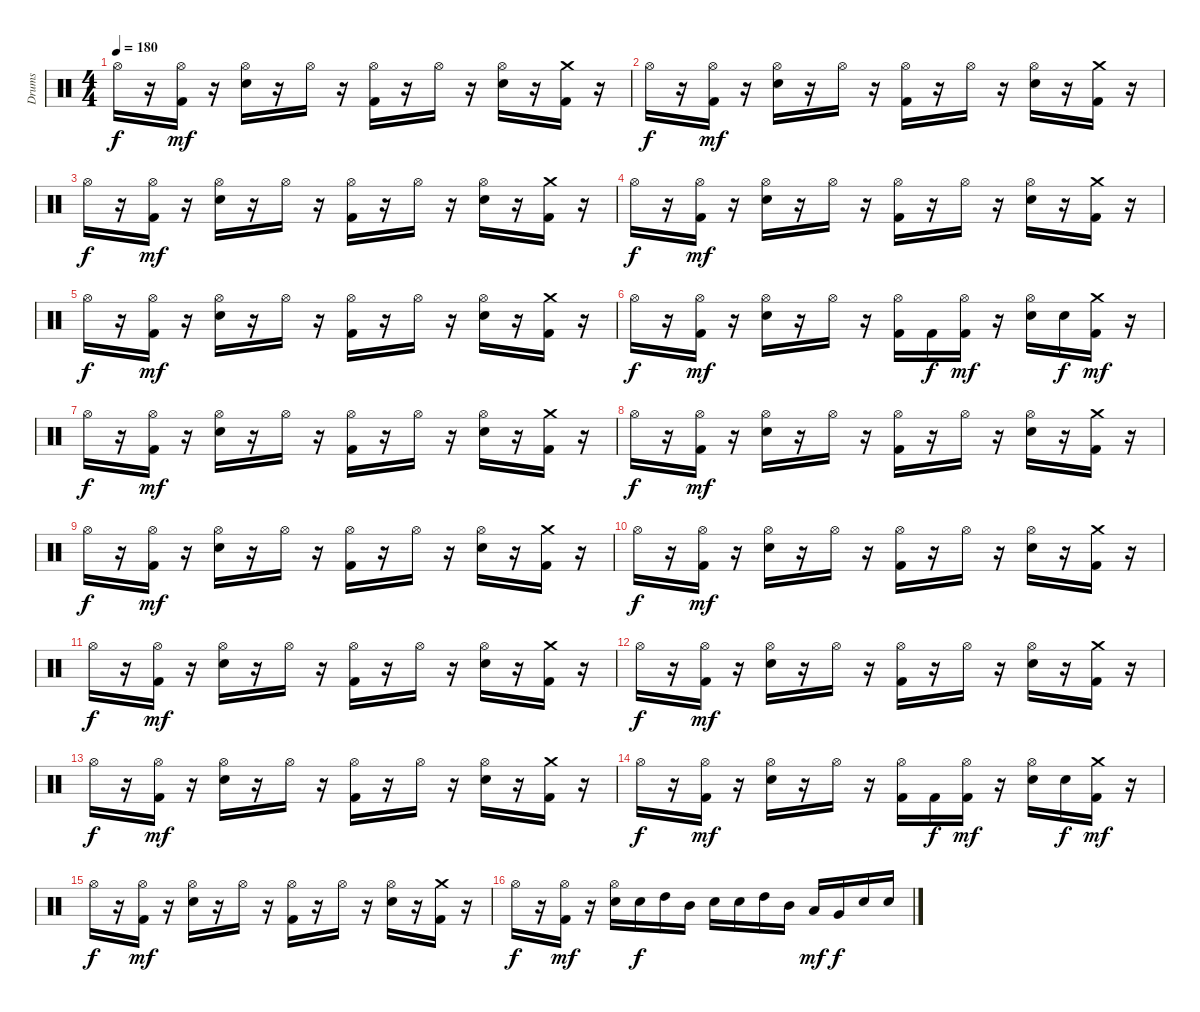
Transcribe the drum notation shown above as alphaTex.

\track ("Drums" "Drums") {instrument percussion}
\staff {score}
\articulation defaults
\ts (4 4)
\tempo 180
\clef neutral
\ks c "Hi-Hat (open)".16{dy f}
r.16 ("Hi-Hat (open)" "Kick (hit) 2").16{dy mf} r.16 ("Hi-Hat (open)" "Electric Snare (hit)").16 r.16 "Hi-Hat (open)".16 r.16 ("Hi-Hat (open)" "Kick (hit) 2").16 r.16 "Hi-Hat (open)".16 r.16 ("Hi-Hat (open)" "Electric Snare (hit)").16 r.16 ("Crash medium (hit)" "Kick (hit) 2").16 r.16 |
"Hi-Hat (open)".16{dy f} r.16 ("Hi-Hat (open)" "Kick (hit) 2").16{dy mf} r.16 ("Hi-Hat (open)" "Electric Snare (hit)").16 r.16 "Hi-Hat (open)".16 r.16 ("Hi-Hat (open)" "Kick (hit) 2").16 r.16 "Hi-Hat (open)".16 r.16 ("Hi-Hat (open)" "Electric Snare (hit)").16 r.16 ("Crash medium (hit)" "Kick (hit) 2").16 r.16 |
"Hi-Hat (open)".16{dy f} r.16 ("Hi-Hat (open)" "Kick (hit) 2").16{dy mf} r.16 ("Hi-Hat (open)" "Electric Snare (hit)").16 r.16 "Hi-Hat (open)".16 r.16 ("Hi-Hat (open)" "Kick (hit) 2").16 r.16 "Hi-Hat (open)".16 r.16 ("Hi-Hat (open)" "Electric Snare (hit)").16 r.16 ("Crash medium (hit)" "Kick (hit) 2").16 r.16 |
"Hi-Hat (open)".16{dy f} r.16 ("Hi-Hat (open)" "Kick (hit) 2").16{dy mf} r.16 ("Hi-Hat (open)" "Electric Snare (hit)").16 r.16 "Hi-Hat (open)".16 r.16 ("Hi-Hat (open)" "Kick (hit) 2").16 r.16 "Hi-Hat (open)".16 r.16 ("Hi-Hat (open)" "Electric Snare (hit)").16 r.16 ("Crash medium (hit)" "Kick (hit) 2").16 r.16 |
"Hi-Hat (open)".16{dy f} r.16 ("Hi-Hat (open)" "Kick (hit) 2").16{dy mf} r.16 ("Hi-Hat (open)" "Electric Snare (hit)").16 r.16 "Hi-Hat (open)".16 r.16 ("Hi-Hat (open)" "Kick (hit) 2").16 r.16 "Hi-Hat (open)".16 r.16 ("Hi-Hat (open)" "Electric Snare (hit)").16 r.16 ("Crash medium (hit)" "Kick (hit) 2").16 r.16 |
"Hi-Hat (open)".16{dy f} r.16 ("Hi-Hat (open)" "Kick (hit) 2").16{dy mf} r.16 ("Hi-Hat (open)" "Electric Snare (hit)").16 r.16 "Hi-Hat (open)".16 r.16 ("Hi-Hat (open)" "Kick (hit) 2").16 "Kick (hit) 2".16{dy f} ("Hi-Hat (open)" "Kick (hit) 2").16{dy mf} r.16 ("Hi-Hat (open)" "Electric Snare (hit)").16 "Electric Snare (hit)".16{dy f} ("Crash medium (hit)" "Kick (hit) 2").16{dy mf} r.16 |
"Hi-Hat (open)".16{dy f} r.16 ("Hi-Hat (open)" "Kick (hit) 2").16{dy mf} r.16 ("Hi-Hat (open)" "Electric Snare (hit)").16 r.16 "Hi-Hat (open)".16 r.16 ("Hi-Hat (open)" "Kick (hit) 2").16 r.16 "Hi-Hat (open)".16 r.16 ("Hi-Hat (open)" "Electric Snare (hit)").16 r.16 ("Crash medium (hit)" "Kick (hit) 2").16 r.16 |
"Hi-Hat (open)".16{dy f} r.16 ("Hi-Hat (open)" "Kick (hit) 2").16{dy mf} r.16 ("Hi-Hat (open)" "Electric Snare (hit)").16 r.16 "Hi-Hat (open)".16 r.16 ("Hi-Hat (open)" "Kick (hit) 2").16 r.16 "Hi-Hat (open)".16 r.16 ("Hi-Hat (open)" "Electric Snare (hit)").16 r.16 ("Crash medium (hit)" "Kick (hit) 2").16 r.16 |
"Hi-Hat (open)".16{dy f} r.16 ("Hi-Hat (open)" "Kick (hit) 2").16{dy mf} r.16 ("Hi-Hat (open)" "Electric Snare (hit)").16 r.16 "Hi-Hat (open)".16 r.16 ("Hi-Hat (open)" "Kick (hit) 2").16 r.16 "Hi-Hat (open)".16 r.16 ("Hi-Hat (open)" "Electric Snare (hit)").16 r.16 ("Crash medium (hit)" "Kick (hit) 2").16 r.16 |
"Hi-Hat (open)".16{dy f} r.16 ("Hi-Hat (open)" "Kick (hit) 2").16{dy mf} r.16 ("Hi-Hat (open)" "Electric Snare (hit)").16 r.16 "Hi-Hat (open)".16 r.16 ("Hi-Hat (open)" "Kick (hit) 2").16 r.16 "Hi-Hat (open)".16 r.16 ("Hi-Hat (open)" "Electric Snare (hit)").16 r.16 ("Crash medium (hit)" "Kick (hit) 2").16 r.16 |
"Hi-Hat (open)".16{dy f} r.16 ("Hi-Hat (open)" "Kick (hit) 2").16{dy mf} r.16 ("Hi-Hat (open)" "Electric Snare (hit)").16 r.16 "Hi-Hat (open)".16 r.16 ("Hi-Hat (open)" "Kick (hit) 2").16 r.16 "Hi-Hat (open)".16 r.16 ("Hi-Hat (open)" "Electric Snare (hit)").16 r.16 ("Crash medium (hit)" "Kick (hit) 2").16 r.16 |
"Hi-Hat (open)".16{dy f} r.16 ("Hi-Hat (open)" "Kick (hit) 2").16{dy mf} r.16 ("Hi-Hat (open)" "Electric Snare (hit)").16 r.16 "Hi-Hat (open)".16 r.16 ("Hi-Hat (open)" "Kick (hit) 2").16 r.16 "Hi-Hat (open)".16 r.16 ("Hi-Hat (open)" "Electric Snare (hit)").16 r.16 ("Crash medium (hit)" "Kick (hit) 2").16 r.16 |
"Hi-Hat (open)".16{dy f} r.16 ("Hi-Hat (open)" "Kick (hit) 2").16{dy mf} r.16 ("Hi-Hat (open)" "Electric Snare (hit)").16 r.16 "Hi-Hat (open)".16 r.16 ("Hi-Hat (open)" "Kick (hit) 2").16 r.16 "Hi-Hat (open)".16 r.16 ("Hi-Hat (open)" "Electric Snare (hit)").16 r.16 ("Crash medium (hit)" "Kick (hit) 2").16 r.16 |
"Hi-Hat (open)".16{dy f} r.16 ("Hi-Hat (open)" "Kick (hit) 2").16{dy mf} r.16 ("Hi-Hat (open)" "Electric Snare (hit)").16 r.16 "Hi-Hat (open)".16 r.16 ("Hi-Hat (open)" "Kick (hit) 2").16 "Kick (hit) 2".16{dy f} ("Hi-Hat (open)" "Kick (hit) 2").16{dy mf} r.16 ("Hi-Hat (open)" "Electric Snare (hit)").16 "Electric Snare (hit)".16{dy f} ("Crash medium (hit)" "Kick (hit) 2").16{dy mf} r.16 |
"Hi-Hat (open)".16{dy f} r.16 ("Hi-Hat (open)" "Kick (hit) 2").16{dy mf} r.16 ("Hi-Hat (open)" "Electric Snare (hit)").16 r.16 "Hi-Hat (open)".16 r.16 ("Hi-Hat (open)" "Kick (hit) 2").16 r.16 "Hi-Hat (open)".16 r.16 ("Hi-Hat (open)" "Electric Snare (hit)").16 r.16 ("Crash medium (hit)" "Kick (hit) 2").16 r.16 |
"Hi-Hat (open)".16{dy f} r.16 ("Hi-Hat (open)" "Kick (hit) 2").16{dy mf} r.16 ("Hi-Hat (open)" "Electric Snare (hit)").16 "Electric Snare (hit)".16{dy f} "High Tom (hit)".16 "Mid Tom (hit)".16 "Electric Snare (hit)".16 "Electric Snare (hit)".16 "High Tom (hit)".16 "Mid Tom (hit)".16 "Low Tom (hit)".16{dy mf} "Very Low Tom (hit)".16{dy f} "Electric Snare (hit)".16 "Electric Snare (hit)".16
